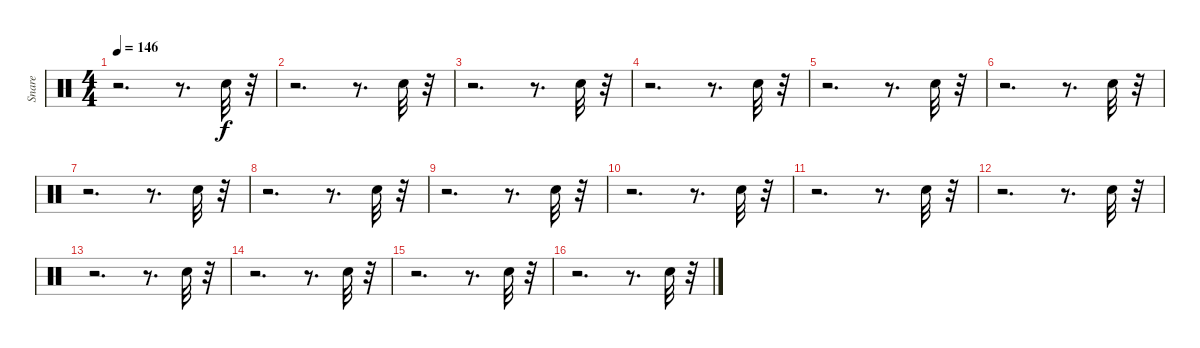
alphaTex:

\track ("Snare" "Snare") {instrument percussion}
\staff {score}
\articulation defaults
\ts (4 4)
\tempo 146
\clef neutral
\ks c
r.2{d dy f} r.8{d} "Snare (hit) 2".32 r.32 |
r.2{d} r.8{d} "Snare (hit) 2".32 r.32 |
r.2{d} r.8{d} "Snare (hit) 2".32 r.32 |
r.2{d} r.8{d} "Snare (hit) 2".32 r.32 |
r.2{d} r.8{d} "Snare (hit) 2".32 r.32 |
r.2{d} r.8{d} "Snare (hit) 2".32 r.32 |
r.2{d} r.8{d} "Snare (hit) 2".32 r.32 |
r.2{d} r.8{d} "Snare (hit) 2".32 r.32 |
r.2{d} r.8{d} "Snare (hit) 2".32 r.32 |
r.2{d} r.8{d} "Snare (hit) 2".32 r.32 |
r.2{d} r.8{d} "Snare (hit) 2".32 r.32 |
r.2{d} r.8{d} "Snare (hit) 2".32 r.32 |
r.2{d} r.8{d} "Snare (hit) 2".32 r.32 |
r.2{d} r.8{d} "Snare (hit) 2".32 r.32 |
r.2{d} r.8{d} "Snare (hit) 2".32 r.32 |
r.2{d} r.8{d} "Snare (hit) 2".32 r.32
